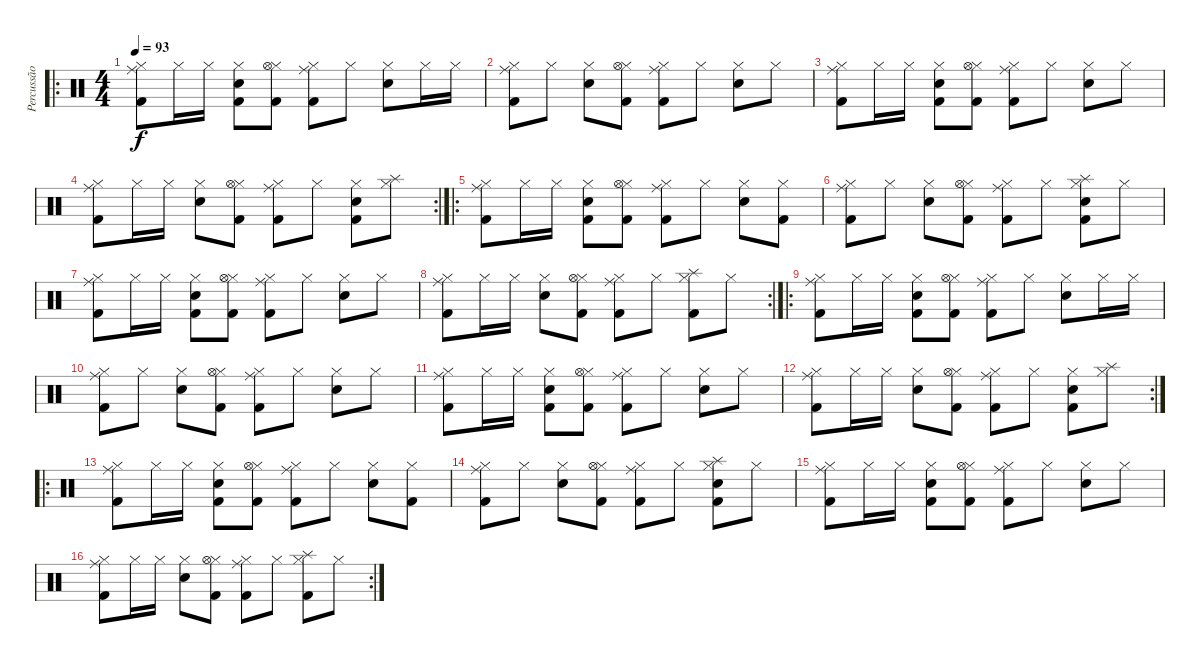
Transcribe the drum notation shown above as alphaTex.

\track ("Percussão" "Percussão") {instrument percussion}
\staff {score}
\articulation defaults
\ro
\ts (4 4)
\tempo 93
\clef neutral
\ks c
("Kick (hit) 2" "Hi-Hat (closed)" "Ride (middle)").8{dy f} "Hi-Hat (closed)".16 "Hi-Hat (closed)".16 ("Kick (hit) 2" "Hi-Hat (closed)" "Electric Snare (hit)").8 ("Kick (hit) 2" "Hi-Hat (closed)" "Hi-Hat (open)").8 ("Kick (hit) 2" "Hi-Hat (closed)" "Ride (middle)").8 "Hi-Hat (closed)".8 ("Hi-Hat (closed)" "Electric Snare (hit)").8 "Hi-Hat (closed)".16 "Hi-Hat (closed)".16 |
("Kick (hit) 2" "Hi-Hat (closed)" "Ride (middle)").8 "Hi-Hat (closed)".8 ("Hi-Hat (closed)" "Electric Snare (hit)").8 ("Kick (hit) 2" "Hi-Hat (closed)" "Hi-Hat (open)").8 ("Kick (hit) 2" "Hi-Hat (closed)" "Ride (middle)").8 "Hi-Hat (closed)".8 ("Hi-Hat (closed)" "Electric Snare (hit)").8 "Hi-Hat (closed)".8 |
("Kick (hit) 2" "Hi-Hat (closed)" "Ride (middle)").8 "Hi-Hat (closed)".16 "Hi-Hat (closed)".16 ("Kick (hit) 2" "Hi-Hat (closed)" "Electric Snare (hit)").8 ("Kick (hit) 2" "Hi-Hat (closed)" "Hi-Hat (open)").8 ("Kick (hit) 2" "Hi-Hat (closed)" "Ride (middle)").8 "Hi-Hat (closed)".8 ("Hi-Hat (closed)" "Electric Snare (hit)").8 "Hi-Hat (closed)".8 |
\rc 2
("Kick (hit) 2" "Hi-Hat (closed)" "Ride (middle)").8 "Hi-Hat (closed)".16 "Hi-Hat (closed)".16 ("Hi-Hat (closed)" "Electric Snare (hit)").8 ("Kick (hit) 2" "Hi-Hat (closed)" "Hi-Hat (open)").8 ("Kick (hit) 2" "Hi-Hat (closed)" "Ride (middle)").8 "Hi-Hat (closed)".8 ("Kick (hit) 2" "Hi-Hat (closed)" "Electric Snare (hit)").8 ("Hi-Hat (closed)" "Splash (hit)").8 |
\ro
("Kick (hit) 2" "Hi-Hat (closed)" "Ride (middle)").8 "Hi-Hat (closed)".16 "Hi-Hat (closed)".16 ("Kick (hit) 2" "Hi-Hat (closed)" "Electric Snare (hit)").8 ("Kick (hit) 2" "Hi-Hat (closed)" "Hi-Hat (open)").8 ("Kick (hit) 2" "Hi-Hat (closed)" "Ride (middle)").8 "Hi-Hat (closed)".8 ("Hi-Hat (closed)" "Electric Snare (hit)").8 ("Kick (hit) 2" "Hi-Hat (closed)").8 |
("Kick (hit) 2" "Hi-Hat (closed)" "Ride (middle)").8 "Hi-Hat (closed)".8 ("Hi-Hat (closed)" "Electric Snare (hit)").8 ("Kick (hit) 2" "Hi-Hat (closed)" "Hi-Hat (open)").8 ("Kick (hit) 2" "Hi-Hat (closed)" "Ride (middle)").8 "Hi-Hat (closed)".8 ("Kick (hit) 2" "Hi-Hat (closed)" "Splash (hit)" "Electric Snare (hit)").8 "Hi-Hat (closed)".8 |
("Kick (hit) 2" "Hi-Hat (closed)" "Ride (middle)").8 "Hi-Hat (closed)".16 "Hi-Hat (closed)".16 ("Kick (hit) 2" "Hi-Hat (closed)" "Electric Snare (hit)").8 ("Kick (hit) 2" "Hi-Hat (closed)" "Hi-Hat (open)").8 ("Kick (hit) 2" "Hi-Hat (closed)" "Ride (middle)").8 "Hi-Hat (closed)".8 ("Hi-Hat (closed)" "Electric Snare (hit)").8 "Hi-Hat (closed)".8 |
\rc 2
("Kick (hit) 2" "Hi-Hat (closed)" "Ride (middle)").8 "Hi-Hat (closed)".16 "Hi-Hat (closed)".16 ("Hi-Hat (closed)" "Electric Snare (hit)").8 ("Kick (hit) 2" "Hi-Hat (closed)" "Hi-Hat (open)").8 ("Kick (hit) 2" "Hi-Hat (closed)" "Ride (middle)").8 "Hi-Hat (closed)".8 ("Kick (hit) 2" "Hi-Hat (closed)" "Splash (hit)").8 "Hi-Hat (closed)".8 |
\ro
("Kick (hit) 2" "Hi-Hat (closed)" "Ride (middle)").8 "Hi-Hat (closed)".16 "Hi-Hat (closed)".16 ("Kick (hit) 2" "Hi-Hat (closed)" "Electric Snare (hit)").8 ("Kick (hit) 2" "Hi-Hat (closed)" "Hi-Hat (open)").8 ("Kick (hit) 2" "Hi-Hat (closed)" "Ride (middle)").8 "Hi-Hat (closed)".8 ("Hi-Hat (closed)" "Electric Snare (hit)").8 "Hi-Hat (closed)".16 "Hi-Hat (closed)".16 |
("Kick (hit) 2" "Hi-Hat (closed)" "Ride (middle)").8 "Hi-Hat (closed)".8 ("Hi-Hat (closed)" "Electric Snare (hit)").8 ("Kick (hit) 2" "Hi-Hat (closed)" "Hi-Hat (open)").8 ("Kick (hit) 2" "Hi-Hat (closed)" "Ride (middle)").8 "Hi-Hat (closed)".8 ("Hi-Hat (closed)" "Electric Snare (hit)").8 "Hi-Hat (closed)".8 |
("Kick (hit) 2" "Hi-Hat (closed)" "Ride (middle)").8 "Hi-Hat (closed)".16 "Hi-Hat (closed)".16 ("Kick (hit) 2" "Hi-Hat (closed)" "Electric Snare (hit)").8 ("Kick (hit) 2" "Hi-Hat (closed)" "Hi-Hat (open)").8 ("Kick (hit) 2" "Hi-Hat (closed)" "Ride (middle)").8 "Hi-Hat (closed)".8 ("Hi-Hat (closed)" "Electric Snare (hit)").8 "Hi-Hat (closed)".8 |
\rc 2
("Kick (hit) 2" "Hi-Hat (closed)" "Ride (middle)").8 "Hi-Hat (closed)".16 "Hi-Hat (closed)".16 ("Hi-Hat (closed)" "Electric Snare (hit)").8 ("Kick (hit) 2" "Hi-Hat (closed)" "Hi-Hat (open)").8 ("Kick (hit) 2" "Hi-Hat (closed)" "Ride (middle)").8 "Hi-Hat (closed)".8 ("Kick (hit) 2" "Hi-Hat (closed)" "Electric Snare (hit)").8 ("Hi-Hat (closed)" "Splash (hit)").8 |
\ro
("Kick (hit) 2" "Hi-Hat (closed)" "Ride (middle)").8 "Hi-Hat (closed)".16 "Hi-Hat (closed)".16 ("Kick (hit) 2" "Hi-Hat (closed)" "Electric Snare (hit)").8 ("Kick (hit) 2" "Hi-Hat (closed)" "Hi-Hat (open)").8 ("Kick (hit) 2" "Hi-Hat (closed)" "Ride (middle)").8 "Hi-Hat (closed)".8 ("Hi-Hat (closed)" "Electric Snare (hit)").8 ("Kick (hit) 2" "Hi-Hat (closed)").8 |
("Kick (hit) 2" "Hi-Hat (closed)" "Ride (middle)").8 "Hi-Hat (closed)".8 ("Hi-Hat (closed)" "Electric Snare (hit)").8 ("Kick (hit) 2" "Hi-Hat (closed)" "Hi-Hat (open)").8 ("Kick (hit) 2" "Hi-Hat (closed)" "Ride (middle)").8 "Hi-Hat (closed)".8 ("Kick (hit) 2" "Hi-Hat (closed)" "Splash (hit)" "Electric Snare (hit)").8 "Hi-Hat (closed)".8 |
("Kick (hit) 2" "Hi-Hat (closed)" "Ride (middle)").8 "Hi-Hat (closed)".16 "Hi-Hat (closed)".16 ("Kick (hit) 2" "Hi-Hat (closed)" "Electric Snare (hit)").8 ("Kick (hit) 2" "Hi-Hat (closed)" "Hi-Hat (open)").8 ("Kick (hit) 2" "Hi-Hat (closed)" "Ride (middle)").8 "Hi-Hat (closed)".8 ("Hi-Hat (closed)" "Electric Snare (hit)").8 "Hi-Hat (closed)".8 |
\rc 2
("Kick (hit) 2" "Hi-Hat (closed)" "Ride (middle)").8 "Hi-Hat (closed)".16 "Hi-Hat (closed)".16 ("Hi-Hat (closed)" "Electric Snare (hit)").8 ("Kick (hit) 2" "Hi-Hat (closed)" "Hi-Hat (open)").8 ("Kick (hit) 2" "Hi-Hat (closed)" "Ride (middle)").8 "Hi-Hat (closed)".8 ("Kick (hit) 2" "Hi-Hat (closed)" "Splash (hit)").8 "Hi-Hat (closed)".8
